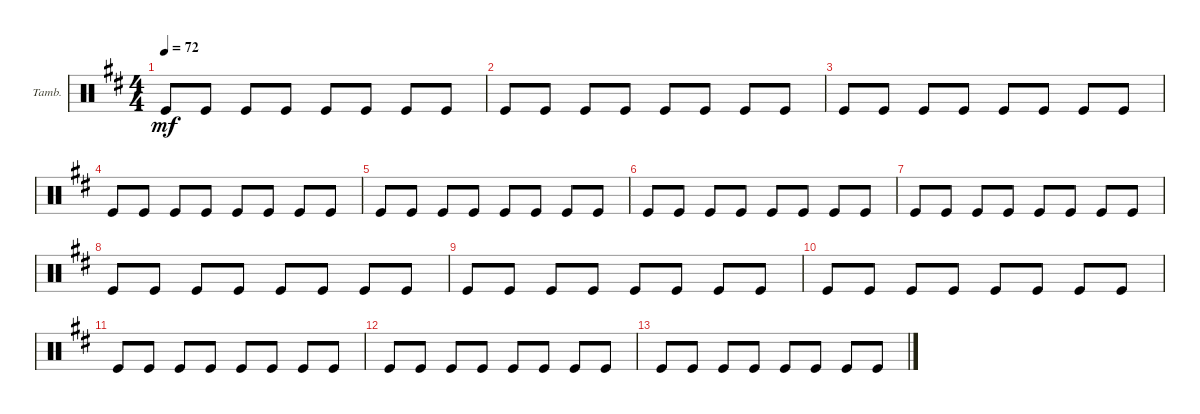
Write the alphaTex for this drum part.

\defaultSystemsLayout 4
\bracketExtendMode groupsimilarinstruments
\firstSystemTrackNameOrientation horizontal
\otherSystemsTrackNameOrientation horizontal
\track ("Tambourine" "Tamb.") {multiBarRest instrument percussion}
\staff {score}
\articulation defaults
\ts (4 4)
\tempo 72
\clef neutral
\ks d "Kick (hit)".8{dy mf} "Kick (hit)".8 "Kick (hit)".8 "Kick (hit)".8 "Kick (hit)".8 "Kick (hit)".8 "Kick (hit)".8 "Kick (hit)".8
|
"Kick (hit)".8 "Kick (hit)".8 "Kick (hit)".8 "Kick (hit)".8 "Kick (hit)".8 "Kick (hit)".8 "Kick (hit)".8 "Kick (hit)".8 |
"Kick (hit)".8 "Kick (hit)".8 "Kick (hit)".8 "Kick (hit)".8 "Kick (hit)".8 "Kick (hit)".8 "Kick (hit)".8 "Kick (hit)".8 |
"Kick (hit)".8 "Kick (hit)".8 "Kick (hit)".8 "Kick (hit)".8 "Kick (hit)".8 "Kick (hit)".8 "Kick (hit)".8 "Kick (hit)".8 |
"Kick (hit)".8 "Kick (hit)".8 "Kick (hit)".8 "Kick (hit)".8 "Kick (hit)".8 "Kick (hit)".8 "Kick (hit)".8 "Kick (hit)".8 |
"Kick (hit)".8 "Kick (hit)".8 "Kick (hit)".8 "Kick (hit)".8 "Kick (hit)".8 "Kick (hit)".8 "Kick (hit)".8 "Kick (hit)".8 |
"Kick (hit)".8 "Kick (hit)".8 "Kick (hit)".8 "Kick (hit)".8 "Kick (hit)".8 "Kick (hit)".8 "Kick (hit)".8 "Kick (hit)".8 |
"Kick (hit)".8 "Kick (hit)".8 "Kick (hit)".8 "Kick (hit)".8 "Kick (hit)".8 "Kick (hit)".8 "Kick (hit)".8 "Kick (hit)".8 |
"Kick (hit)".8 "Kick (hit)".8 "Kick (hit)".8 "Kick (hit)".8 "Kick (hit)".8 "Kick (hit)".8 "Kick (hit)".8 "Kick (hit)".8 |
"Kick (hit)".8 "Kick (hit)".8 "Kick (hit)".8 "Kick (hit)".8 "Kick (hit)".8 "Kick (hit)".8 "Kick (hit)".8 "Kick (hit)".8 |
"Kick (hit)".8 "Kick (hit)".8 "Kick (hit)".8 "Kick (hit)".8 "Kick (hit)".8 "Kick (hit)".8 "Kick (hit)".8 "Kick (hit)".8 |
"Kick (hit)".8 "Kick (hit)".8 "Kick (hit)".8 "Kick (hit)".8 "Kick (hit)".8 "Kick (hit)".8 "Kick (hit)".8 "Kick (hit)".8 |
"Kick (hit)".8 "Kick (hit)".8 "Kick (hit)".8 "Kick (hit)".8 "Kick (hit)".8 "Kick (hit)".8 "Kick (hit)".8 "Kick (hit)".8
